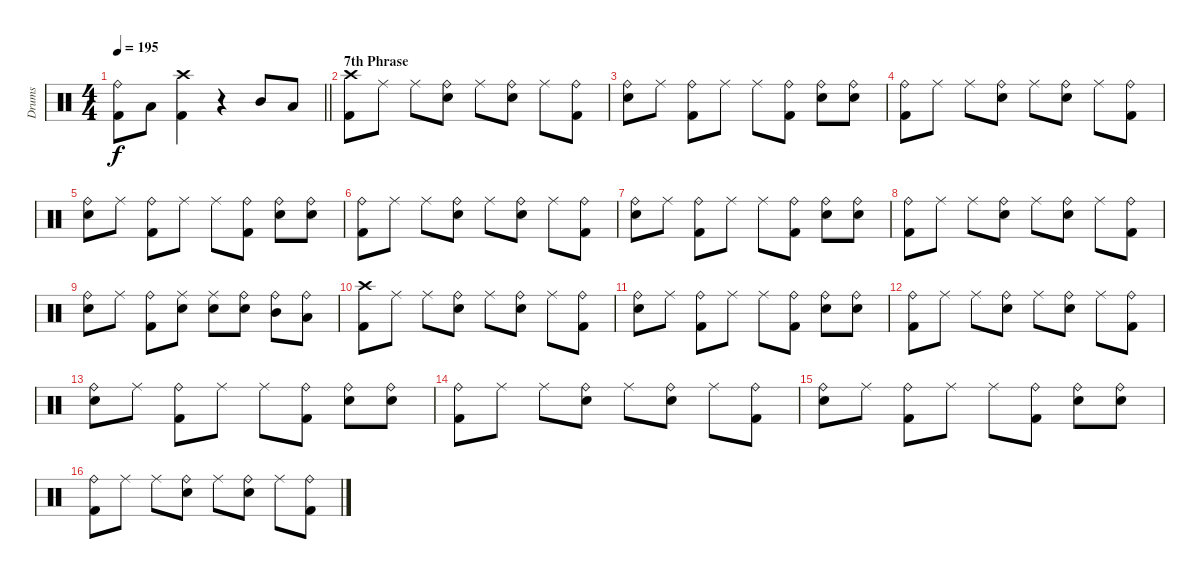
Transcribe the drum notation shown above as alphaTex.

\track ("Drums" "Drums") {instrument percussion}
\staff {score}
\articulation defaults
\ts (4 4)
\tempo 195
\clef neutral
\barLineRight lightlight
\ks c
("Ride (bell)" "Kick (hit) 2").8{dy f} "Low Floor Tom (hit)".8 ("Crash high (hit)" "Kick (hit) 2").4 r.4 "Mid Tom (hit)".8 "Low Floor Tom (hit)".8 |
\section ("" "7th Phrase")
("Crash high (hit)" "Kick (hit) 2").8 "Ride (middle)".8 "Ride (middle)".8 ("Ride (bell)" "Snare (hit) 2").8 "Ride (middle)".8 ("Ride (bell)" "Snare (hit) 2").8 "Ride (middle)".8 ("Ride (bell)" "Kick (hit) 2").8 |
("Ride (bell)" "Snare (hit) 2").8 "Ride (middle)".8 ("Ride (bell)" "Kick (hit) 2").8 "Ride (middle)".8 "Ride (middle)".8 ("Ride (bell)" "Kick (hit) 2").8 ("Ride (bell)" "Snare (hit) 2").8 ("Ride (bell)" "Snare (hit) 2").8 |
("Ride (bell)" "Kick (hit) 2").8 "Ride (middle)".8 "Ride (middle)".8 ("Ride (bell)" "Snare (hit) 2").8 "Ride (middle)".8 ("Ride (bell)" "Snare (hit) 2").8 "Ride (middle)".8 ("Ride (bell)" "Kick (hit) 2").8 |
("Ride (bell)" "Snare (hit) 2").8 "Ride (middle)".8 ("Ride (bell)" "Kick (hit) 2").8 "Ride (middle)".8 "Ride (middle)".8 ("Ride (bell)" "Kick (hit) 2").8 ("Ride (bell)" "Snare (hit) 2").8 ("Ride (bell)" "Snare (hit) 2").8 |
("Ride (bell)" "Kick (hit) 2").8 "Ride (middle)".8 "Ride (middle)".8 ("Ride (bell)" "Snare (hit) 2").8 "Ride (middle)".8 ("Ride (bell)" "Snare (hit) 2").8 "Ride (middle)".8 ("Ride (bell)" "Kick (hit) 2").8 |
("Ride (bell)" "Snare (hit) 2").8 "Ride (middle)".8 ("Ride (bell)" "Kick (hit) 2").8 "Ride (middle)".8 "Ride (middle)".8 ("Ride (bell)" "Kick (hit) 2").8 ("Ride (bell)" "Snare (hit) 2").8 ("Ride (bell)" "Snare (hit) 2").8 |
("Ride (bell)" "Kick (hit) 2").8 "Ride (middle)".8 "Ride (middle)".8 ("Ride (bell)" "Snare (hit) 2").8 "Ride (middle)".8 ("Ride (bell)" "Snare (hit) 2").8 "Ride (middle)".8 ("Ride (bell)" "Kick (hit) 2").8 |
("Ride (bell)" "Snare (hit) 2").8 "Ride (middle)".8 ("Ride (bell)" "Kick (hit) 2").8 ("Ride (middle)" "Snare (hit) 2").8 ("Ride (middle)" "Snare (hit) 2").8 ("Ride (bell)" "Snare (hit) 2").8 ("Ride (bell)" "Mid Tom (hit)").8 ("Ride (bell)" "Low Floor Tom (hit)").8 |
("Crash high (hit)" "Kick (hit) 2").8 "Ride (middle)".8 "Ride (middle)".8 ("Ride (bell)" "Snare (hit) 2").8 "Ride (middle)".8 ("Ride (bell)" "Snare (hit) 2").8 "Ride (middle)".8 ("Ride (bell)" "Kick (hit) 2").8 |
("Ride (bell)" "Snare (hit) 2").8 "Ride (middle)".8 ("Ride (bell)" "Kick (hit) 2").8 "Ride (middle)".8 "Ride (middle)".8 ("Ride (bell)" "Kick (hit) 2").8 ("Ride (bell)" "Snare (hit) 2").8 ("Ride (bell)" "Snare (hit) 2").8 |
("Ride (bell)" "Kick (hit) 2").8 "Ride (middle)".8 "Ride (middle)".8 ("Ride (bell)" "Snare (hit) 2").8 "Ride (middle)".8 ("Ride (bell)" "Snare (hit) 2").8 "Ride (middle)".8 ("Ride (bell)" "Kick (hit) 2").8 |
("Ride (bell)" "Snare (hit) 2").8 "Ride (middle)".8 ("Ride (bell)" "Kick (hit) 2").8 "Ride (middle)".8 "Ride (middle)".8 ("Ride (bell)" "Kick (hit) 2").8 ("Ride (bell)" "Snare (hit) 2").8 ("Ride (bell)" "Snare (hit) 2").8 |
("Ride (bell)" "Kick (hit) 2").8 "Ride (middle)".8 "Ride (middle)".8 ("Ride (bell)" "Snare (hit) 2").8 "Ride (middle)".8 ("Ride (bell)" "Snare (hit) 2").8 "Ride (middle)".8 ("Ride (bell)" "Kick (hit) 2").8 |
("Ride (bell)" "Snare (hit) 2").8 "Ride (middle)".8 ("Ride (bell)" "Kick (hit) 2").8 "Ride (middle)".8 "Ride (middle)".8 ("Ride (bell)" "Kick (hit) 2").8 ("Ride (bell)" "Snare (hit) 2").8 ("Ride (bell)" "Snare (hit) 2").8 |
("Ride (bell)" "Kick (hit) 2").8 "Ride (middle)".8 "Ride (middle)".8 ("Ride (bell)" "Snare (hit) 2").8 "Ride (middle)".8 ("Ride (bell)" "Snare (hit) 2").8 "Ride (middle)".8 ("Ride (bell)" "Kick (hit) 2").8
